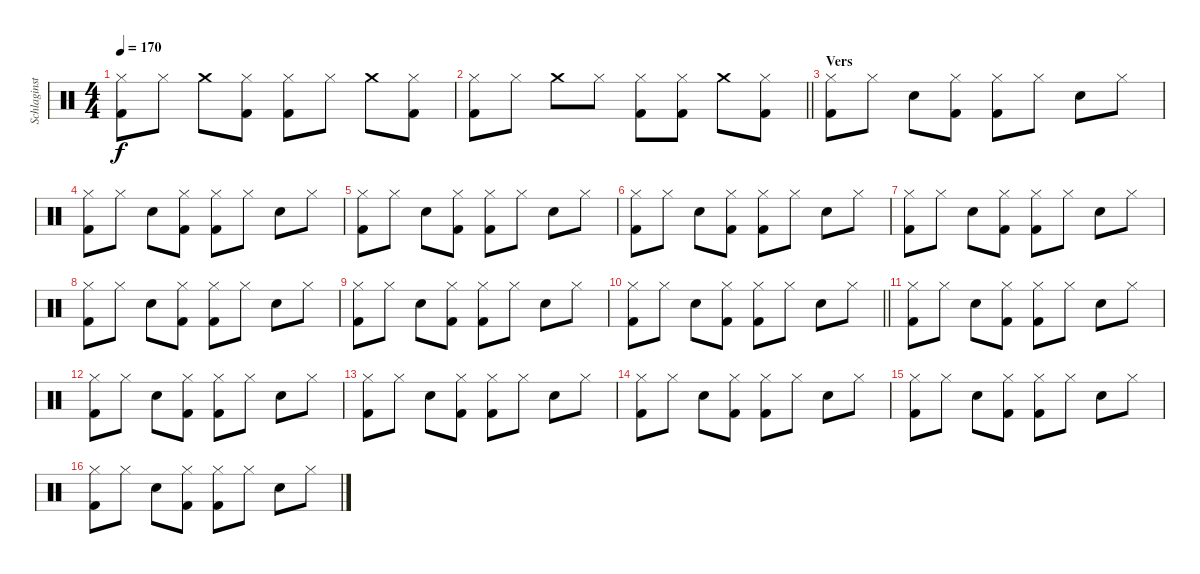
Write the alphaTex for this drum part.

\track ("Schlaginstrumente - Auswahl" "Schlaginst") {instrument percussion}
\staff {score}
\articulation defaults
\ts (4 4)
\tempo 170
\clef neutral
\ks c
("Hi-Hat (closed)" "Kick (hit) 2").8{dy f} "Hi-Hat (closed)".8 "Crash medium (hit)".8 ("Hi-Hat (closed)" "Kick (hit) 2").8 ("Hi-Hat (closed)" "Kick (hit) 2").8 "Hi-Hat (closed)".8 "Crash medium (hit)".8 ("Hi-Hat (closed)" "Kick (hit) 2").8 |
\barLineRight lightlight
("Hi-Hat (closed)" "Kick (hit) 2").8 "Hi-Hat (closed)".8 "Crash medium (hit)".8 "Hi-Hat (closed)".8 ("Hi-Hat (closed)" "Kick (hit) 2").8 ("Hi-Hat (closed)" "Kick (hit) 2").8 "Crash medium (hit)".8 ("Hi-Hat (closed)" "Kick (hit) 2").8 |
\section ("" "Vers")
("Hi-Hat (closed)" "Kick (hit) 2").8 "Hi-Hat (closed)".8 "Snare (hit) 2".8 ("Hi-Hat (closed)" "Kick (hit) 2").8 ("Hi-Hat (closed)" "Kick (hit) 2").8 "Hi-Hat (closed)".8 "Snare (hit) 2".8 "Hi-Hat (closed)".8 |
("Hi-Hat (closed)" "Kick (hit) 2").8 "Hi-Hat (closed)".8 "Snare (hit) 2".8 ("Hi-Hat (closed)" "Kick (hit) 2").8 ("Hi-Hat (closed)" "Kick (hit) 2").8 "Hi-Hat (closed)".8 "Snare (hit) 2".8 "Hi-Hat (closed)".8 |
("Hi-Hat (closed)" "Kick (hit) 2").8 "Hi-Hat (closed)".8 "Snare (hit) 2".8 ("Hi-Hat (closed)" "Kick (hit) 2").8 ("Hi-Hat (closed)" "Kick (hit) 2").8 "Hi-Hat (closed)".8 "Snare (hit) 2".8 "Hi-Hat (closed)".8 |
("Hi-Hat (closed)" "Kick (hit) 2").8 "Hi-Hat (closed)".8 "Snare (hit) 2".8 ("Hi-Hat (closed)" "Kick (hit) 2").8 ("Hi-Hat (closed)" "Kick (hit) 2").8 "Hi-Hat (closed)".8 "Snare (hit) 2".8 "Hi-Hat (closed)".8 |
("Hi-Hat (closed)" "Kick (hit) 2").8 "Hi-Hat (closed)".8 "Snare (hit) 2".8 ("Hi-Hat (closed)" "Kick (hit) 2").8 ("Hi-Hat (closed)" "Kick (hit) 2").8 "Hi-Hat (closed)".8 "Snare (hit) 2".8 "Hi-Hat (closed)".8 |
("Hi-Hat (closed)" "Kick (hit) 2").8 "Hi-Hat (closed)".8 "Snare (hit) 2".8 ("Hi-Hat (closed)" "Kick (hit) 2").8 ("Hi-Hat (closed)" "Kick (hit) 2").8 "Hi-Hat (closed)".8 "Snare (hit) 2".8 "Hi-Hat (closed)".8 |
("Hi-Hat (closed)" "Kick (hit) 2").8 "Hi-Hat (closed)".8 "Snare (hit) 2".8 ("Hi-Hat (closed)" "Kick (hit) 2").8 ("Hi-Hat (closed)" "Kick (hit) 2").8 "Hi-Hat (closed)".8 "Snare (hit) 2".8 "Hi-Hat (closed)".8 |
\barLineRight lightlight
("Hi-Hat (closed)" "Kick (hit) 2").8 "Hi-Hat (closed)".8 "Snare (hit) 2".8 ("Hi-Hat (closed)" "Kick (hit) 2").8 ("Hi-Hat (closed)" "Kick (hit) 2").8 "Hi-Hat (closed)".8 "Snare (hit) 2".8 "Hi-Hat (closed)".8 |
("Hi-Hat (closed)" "Kick (hit) 2").8 "Hi-Hat (closed)".8 "Snare (hit) 2".8 ("Hi-Hat (closed)" "Kick (hit) 2").8 ("Hi-Hat (closed)" "Kick (hit) 2").8 "Hi-Hat (closed)".8 "Snare (hit) 2".8 "Hi-Hat (closed)".8 |
("Hi-Hat (closed)" "Kick (hit) 2").8 "Hi-Hat (closed)".8 "Snare (hit) 2".8 ("Hi-Hat (closed)" "Kick (hit) 2").8 ("Hi-Hat (closed)" "Kick (hit) 2").8 "Hi-Hat (closed)".8 "Snare (hit) 2".8 "Hi-Hat (closed)".8 |
("Hi-Hat (closed)" "Kick (hit) 2").8 "Hi-Hat (closed)".8 "Snare (hit) 2".8 ("Hi-Hat (closed)" "Kick (hit) 2").8 ("Hi-Hat (closed)" "Kick (hit) 2").8 "Hi-Hat (closed)".8 "Snare (hit) 2".8 "Hi-Hat (closed)".8 |
("Hi-Hat (closed)" "Kick (hit) 2").8 "Hi-Hat (closed)".8 "Snare (hit) 2".8 ("Hi-Hat (closed)" "Kick (hit) 2").8 ("Hi-Hat (closed)" "Kick (hit) 2").8 "Hi-Hat (closed)".8 "Snare (hit) 2".8 "Hi-Hat (closed)".8 |
("Hi-Hat (closed)" "Kick (hit) 2").8 "Hi-Hat (closed)".8 "Snare (hit) 2".8 ("Hi-Hat (closed)" "Kick (hit) 2").8 ("Hi-Hat (closed)" "Kick (hit) 2").8 "Hi-Hat (closed)".8 "Snare (hit) 2".8 "Hi-Hat (closed)".8 |
("Hi-Hat (closed)" "Kick (hit) 2").8 "Hi-Hat (closed)".8 "Snare (hit) 2".8 ("Hi-Hat (closed)" "Kick (hit) 2").8 ("Hi-Hat (closed)" "Kick (hit) 2").8 "Hi-Hat (closed)".8 "Snare (hit) 2".8 "Hi-Hat (closed)".8
